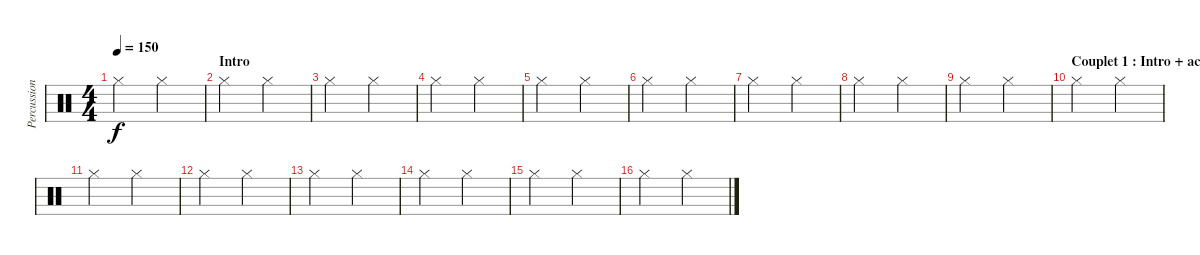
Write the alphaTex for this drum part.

\track ("Percussions" "Percussion") {instrument percussion}
\staff {score}
\articulation defaults
\ts (4 4)
\tempo 150
\clef neutral
\ks c "Hi-Hat (closed)".2{dy f} "Hi-Hat (closed)".2
|
\section ("" "Intro")
"Hi-Hat (closed)".2 "Hi-Hat (closed)".2 |
"Hi-Hat (closed)".2 "Hi-Hat (closed)".2 |
"Hi-Hat (closed)".2 "Hi-Hat (closed)".2 |
"Hi-Hat (closed)".2 "Hi-Hat (closed)".2 |
"Hi-Hat (closed)".2 "Hi-Hat (closed)".2 |
"Hi-Hat (closed)".2 "Hi-Hat (closed)".2 |
"Hi-Hat (closed)".2 "Hi-Hat (closed)".2 |
"Hi-Hat (closed)".2 "Hi-Hat (closed)".2 |
\section ("" "Couplet 1 : Intro + accords")
"Hi-Hat (closed)".2 "Hi-Hat (closed)".2 |
"Hi-Hat (closed)".2 "Hi-Hat (closed)".2 |
"Hi-Hat (closed)".2 "Hi-Hat (closed)".2 |
"Hi-Hat (closed)".2 "Hi-Hat (closed)".2 |
"Hi-Hat (closed)".2 "Hi-Hat (closed)".2 |
"Hi-Hat (closed)".2 "Hi-Hat (closed)".2 |
"Hi-Hat (closed)".2 "Hi-Hat (closed)".2
